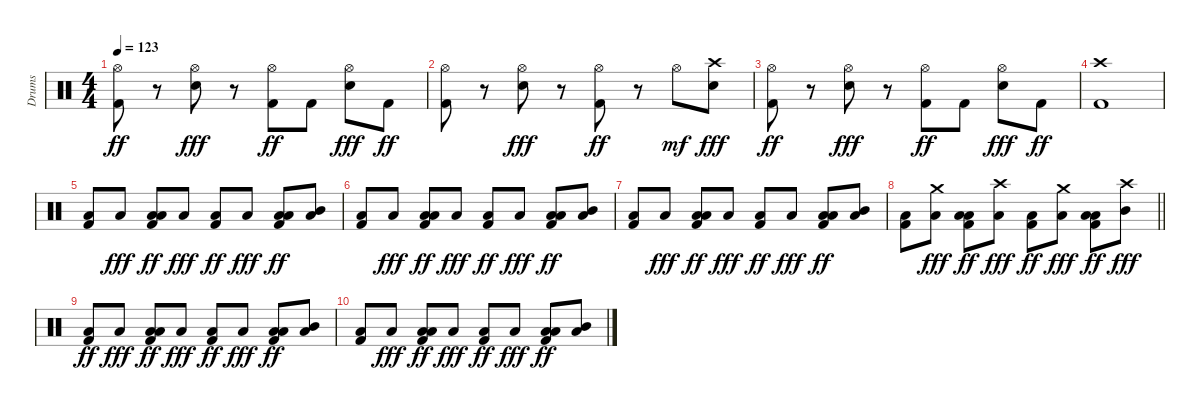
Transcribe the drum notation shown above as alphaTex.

\track ("Drums" "Drums") {instrument percussion}
\staff {score}
\articulation defaults
\ts (4 4)
\tempo 123
\clef neutral
\ks c
("Hi-Hat (open)" "Kick (hit) 2").8{dy ff} r.8 ("Hi-Hat (open)" "Electric Snare (hit)").8{dy fff} r.8 ("Hi-Hat (open)" "Kick (hit) 2").8{dy ff} "Kick (hit) 2".8 ("Hi-Hat (open)" "Electric Snare (hit)").8{dy fff} "Kick (hit) 2".8{dy ff} |
("Hi-Hat (open)" "Kick (hit) 2").8 r.8 ("Hi-Hat (open)" "Electric Snare (hit)").8{dy fff} r.8 ("Hi-Hat (open)" "Kick (hit) 2").8{dy ff} r.8 "Hi-Hat (open)".8{dy mf} ("Crash high (hit)" "Electric Snare (hit)").8{dy fff} |
("Hi-Hat (open)" "Kick (hit) 2").8{dy ff} r.8 ("Hi-Hat (open)" "Electric Snare (hit)").8{dy fff} r.8 ("Hi-Hat (open)" "Kick (hit) 2").8{dy ff} "Kick (hit) 2".8 ("Hi-Hat (open)" "Electric Snare (hit)").8{dy fff} "Kick (hit) 2".8{dy ff} |
("Crash high (hit)" "Kick (hit) 2").1 |
("Low Floor Tom (hit)" "Kick (hit) 2").8 "Low Floor Tom (hit)".8{dy fff} ("Low Tom (hit)" "Low Floor Tom (hit)" "Kick (hit) 2").8{dy ff} "Low Floor Tom (hit)".8{dy fff} ("Low Floor Tom (hit)" "Kick (hit) 2").8{dy ff} "Low Floor Tom (hit)".8{dy fff} ("Low Tom (hit)" "Low Floor Tom (hit)" "Kick (hit) 2").8{dy ff} ("Mid Tom (hit)" "Low Floor Tom (hit)").8 |
("Low Floor Tom (hit)" "Kick (hit) 2").8 "Low Floor Tom (hit)".8{dy fff} ("Low Tom (hit)" "Low Floor Tom (hit)" "Kick (hit) 2").8{dy ff} "Low Floor Tom (hit)".8{dy fff} ("Low Floor Tom (hit)" "Kick (hit) 2").8{dy ff} "Low Floor Tom (hit)".8{dy fff} ("Low Tom (hit)" "Low Floor Tom (hit)" "Kick (hit) 2").8{dy ff} ("Mid Tom (hit)" "Low Floor Tom (hit)").8 |
("Low Floor Tom (hit)" "Kick (hit) 2").8 "Low Floor Tom (hit)".8{dy fff} ("Low Tom (hit)" "Low Floor Tom (hit)" "Kick (hit) 2").8{dy ff} "Low Floor Tom (hit)".8{dy fff} ("Low Floor Tom (hit)" "Kick (hit) 2").8{dy ff} "Low Floor Tom (hit)".8{dy fff} ("Low Tom (hit)" "Low Floor Tom (hit)" "Kick (hit) 2").8{dy ff} ("Mid Tom (hit)" "Low Floor Tom (hit)").8 |
\barLineRight lightlight
("Low Floor Tom (hit)" "Kick (hit) 2").8 ("Crash medium (hit)" "Low Floor Tom (hit)").8{dy fff} ("Low Tom (hit)" "Low Floor Tom (hit)" "Kick (hit) 2").8{dy ff} ("Crash high (hit)" "Low Floor Tom (hit)").8{dy fff} ("Low Floor Tom (hit)" "Kick (hit) 2").8{dy ff} ("Crash medium (hit)" "Low Floor Tom (hit)").8{dy fff} ("Low Tom (hit)" "Low Floor Tom (hit)" "Kick (hit) 2").8{dy ff} ("Crash high (hit)" "Mid Tom (hit)").8{dy fff} |
("Low Floor Tom (hit)" "Kick (hit) 2").8{dy ff volume 0} "Low Floor Tom (hit)".8{dy fff} ("Low Tom (hit)" "Low Floor Tom (hit)" "Kick (hit) 2").8{dy ff} "Low Floor Tom (hit)".8{dy fff} ("Low Floor Tom (hit)" "Kick (hit) 2").8{dy ff} "Low Floor Tom (hit)".8{dy fff} ("Low Tom (hit)" "Low Floor Tom (hit)" "Kick (hit) 2").8{dy ff} ("Mid Tom (hit)" "Low Floor Tom (hit)").8 |
("Low Floor Tom (hit)" "Kick (hit) 2").8 "Low Floor Tom (hit)".8{dy fff} ("Low Tom (hit)" "Low Floor Tom (hit)" "Kick (hit) 2").8{dy ff} "Low Floor Tom (hit)".8{dy fff} ("Low Floor Tom (hit)" "Kick (hit) 2").8{dy ff} "Low Floor Tom (hit)".8{dy fff} ("Low Tom (hit)" "Low Floor Tom (hit)" "Kick (hit) 2").8{dy ff} ("Mid Tom (hit)" "Low Floor Tom (hit)").8
